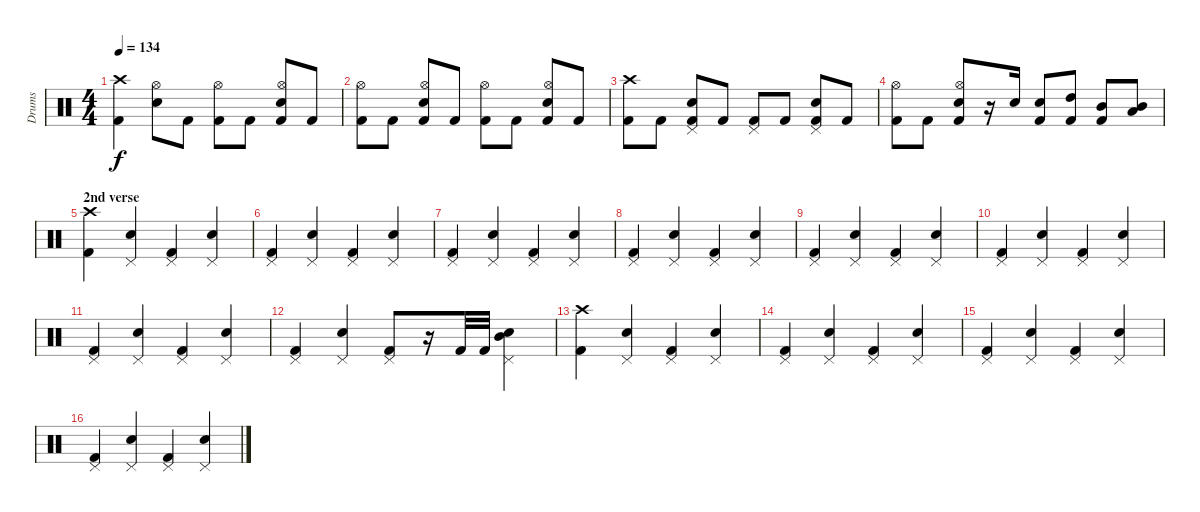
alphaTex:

\track ("Drums" "Drums") {instrument percussion}
\staff {score}
\articulation defaults
\ts (4 4)
\tempo 134
\clef neutral
\ks c
("Crash high (hit)" "Kick (hit) 2").4{dy f} ("Hi-Hat (open)" "Snare (hit) 2").8 "Kick (hit) 2".8 ("Hi-Hat (open)" "Kick (hit) 2").8 "Kick (hit) 2".8 ("Hi-Hat (open)" "Snare (hit) 2" "Kick (hit) 2").8 "Kick (hit) 2".8 |
("Hi-Hat (open)" "Kick (hit) 2").8 "Kick (hit) 2".8 ("Hi-Hat (open)" "Snare (hit) 2" "Kick (hit) 2").8 "Kick (hit) 2".8 ("Hi-Hat (open)" "Kick (hit) 2").8 "Kick (hit) 2".8 ("Hi-Hat (open)" "Snare (hit) 2" "Kick (hit) 2").8 "Kick (hit) 2".8 |
("Crash high (hit)" "Kick (hit) 2").8 "Kick (hit) 2".8 ("Pedal Hi-Hat (hit)" "Snare (hit) 2" "Kick (hit) 2").8 "Kick (hit) 2".8 ("Pedal Hi-Hat (hit)" "Kick (hit) 2").8 "Kick (hit) 2".8 ("Pedal Hi-Hat (hit)" "Snare (hit) 2" "Kick (hit) 2").8 "Kick (hit) 2".8 |
("Hi-Hat (open)" "Kick (hit) 2").8 "Kick (hit) 2".8 ("Hi-Hat (open)" "Snare (hit) 2" "Kick (hit) 2").8 r.16 "Snare (hit) 2".16 ("Snare (hit) 2" "Kick (hit) 2").8 ("High Tom (hit)" "Kick (hit) 2").8 ("Mid Tom (hit)" "Kick (hit) 2").8 ("Mid Tom (hit)" "Low Tom (hit)").8 |
\section ("" "2nd verse")
("Crash high (hit)" "Kick (hit) 2").4 ("Pedal Hi-Hat (hit)" "Snare (hit) 2").4 ("Pedal Hi-Hat (hit)" "Kick (hit) 2").4 ("Pedal Hi-Hat (hit)" "Snare (hit) 2").4 |
("Pedal Hi-Hat (hit)" "Kick (hit) 2").4 ("Pedal Hi-Hat (hit)" "Snare (hit) 2").4 ("Pedal Hi-Hat (hit)" "Kick (hit) 2").4 ("Pedal Hi-Hat (hit)" "Snare (hit) 2").4 |
("Pedal Hi-Hat (hit)" "Kick (hit) 2").4 ("Pedal Hi-Hat (hit)" "Snare (hit) 2").4 ("Pedal Hi-Hat (hit)" "Kick (hit) 2").4 ("Pedal Hi-Hat (hit)" "Snare (hit) 2").4 |
("Pedal Hi-Hat (hit)" "Kick (hit) 2").4 ("Pedal Hi-Hat (hit)" "Snare (hit) 2").4 ("Pedal Hi-Hat (hit)" "Kick (hit) 2").4 ("Pedal Hi-Hat (hit)" "Snare (hit) 2").4 |
("Pedal Hi-Hat (hit)" "Kick (hit) 2").4 ("Pedal Hi-Hat (hit)" "Snare (hit) 2").4 ("Pedal Hi-Hat (hit)" "Kick (hit) 2").4 ("Pedal Hi-Hat (hit)" "Snare (hit) 2").4 |
("Pedal Hi-Hat (hit)" "Kick (hit) 2").4 ("Pedal Hi-Hat (hit)" "Snare (hit) 2").4 ("Pedal Hi-Hat (hit)" "Kick (hit) 2").4 ("Pedal Hi-Hat (hit)" "Snare (hit) 2").4 |
("Pedal Hi-Hat (hit)" "Kick (hit) 2").4 ("Pedal Hi-Hat (hit)" "Snare (hit) 2").4 ("Pedal Hi-Hat (hit)" "Kick (hit) 2").4 ("Pedal Hi-Hat (hit)" "Snare (hit) 2").4 |
("Pedal Hi-Hat (hit)" "Kick (hit) 2").4 ("Pedal Hi-Hat (hit)" "Snare (hit) 2").4 ("Pedal Hi-Hat (hit)" "Kick (hit) 2").8 r.16 "Kick (hit) 2".32 "Kick (hit) 2".32 ("Mid Tom (hit)" "Pedal Hi-Hat (hit)" "Snare (hit) 2").4 |
\section ("" "")
("Crash high (hit)" "Kick (hit) 2").4 ("Pedal Hi-Hat (hit)" "Snare (hit) 2").4 ("Pedal Hi-Hat (hit)" "Kick (hit) 2").4 ("Pedal Hi-Hat (hit)" "Snare (hit) 2").4 |
("Pedal Hi-Hat (hit)" "Kick (hit) 2").4 ("Pedal Hi-Hat (hit)" "Snare (hit) 2").4 ("Pedal Hi-Hat (hit)" "Kick (hit) 2").4 ("Pedal Hi-Hat (hit)" "Snare (hit) 2").4 |
("Pedal Hi-Hat (hit)" "Kick (hit) 2").4 ("Pedal Hi-Hat (hit)" "Snare (hit) 2").4 ("Pedal Hi-Hat (hit)" "Kick (hit) 2").4 ("Pedal Hi-Hat (hit)" "Snare (hit) 2").4 |
("Pedal Hi-Hat (hit)" "Kick (hit) 2").4 ("Pedal Hi-Hat (hit)" "Snare (hit) 2").4 ("Pedal Hi-Hat (hit)" "Kick (hit) 2").4 ("Pedal Hi-Hat (hit)" "Snare (hit) 2").4
